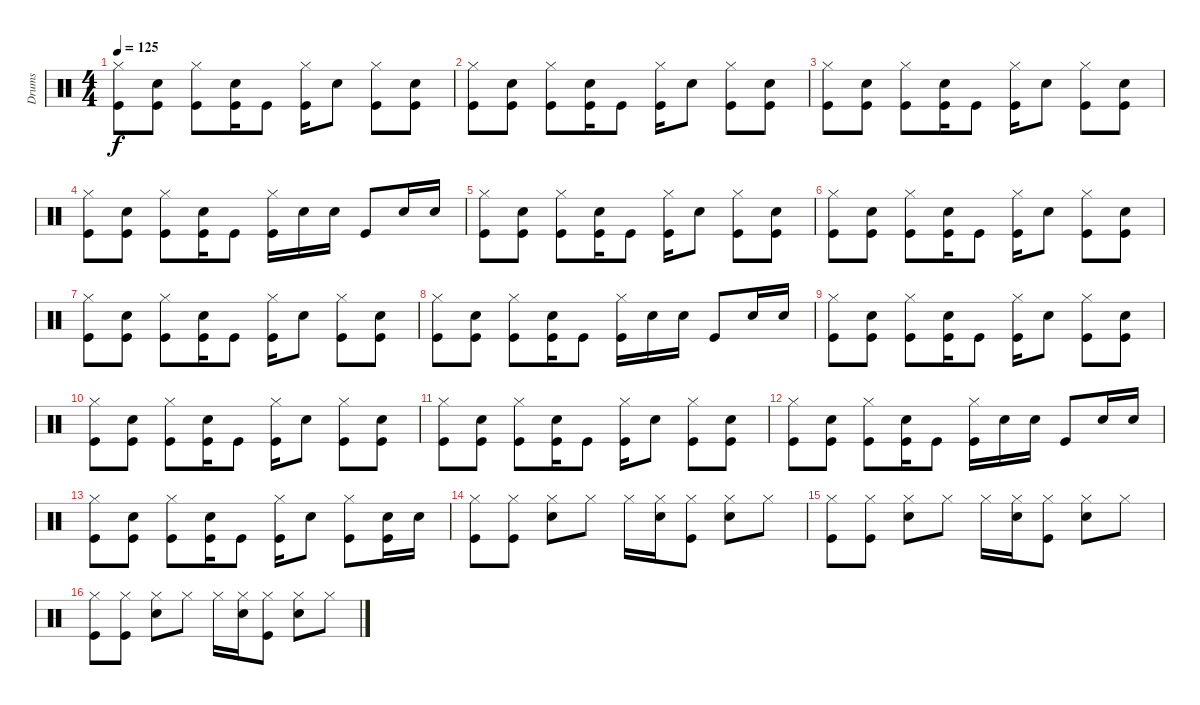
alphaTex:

\track ("Drums" "Drums") {instrument percussion}
\staff {score}
\articulation defaults
\ts (4 4)
\tempo 125
\clef neutral
\ks c
("Hi-Hat (closed)" "Kick (hit)").8{dy f} ("Snare (hit) 2" "Kick (hit)").8 ("Hi-Hat (closed)" "Kick (hit)").8 ("Snare (hit) 2" "Kick (hit)").16 "Kick (hit)".8 ("Hi-Hat (closed)" "Kick (hit)").16 "Snare (hit) 2".8 ("Hi-Hat (closed)" "Kick (hit)").8 ("Snare (hit) 2" "Kick (hit)").8 |
("Hi-Hat (closed)" "Kick (hit)").8 ("Snare (hit) 2" "Kick (hit)").8 ("Hi-Hat (closed)" "Kick (hit)").8 ("Snare (hit) 2" "Kick (hit)").16 "Kick (hit)".8 ("Hi-Hat (closed)" "Kick (hit)").16 "Snare (hit) 2".8 ("Hi-Hat (closed)" "Kick (hit)").8 ("Snare (hit) 2" "Kick (hit)").8 |
("Hi-Hat (closed)" "Kick (hit)").8 ("Snare (hit) 2" "Kick (hit)").8 ("Hi-Hat (closed)" "Kick (hit)").8 ("Snare (hit) 2" "Kick (hit)").16 "Kick (hit)".8 ("Hi-Hat (closed)" "Kick (hit)").16 "Snare (hit) 2".8 ("Hi-Hat (closed)" "Kick (hit)").8 ("Snare (hit) 2" "Kick (hit)").8 |
("Hi-Hat (closed)" "Kick (hit)").8 ("Snare (hit) 2" "Kick (hit)").8 ("Hi-Hat (closed)" "Kick (hit)").8 ("Snare (hit) 2" "Kick (hit)").16 "Kick (hit)".8 ("Hi-Hat (closed)" "Kick (hit)").16 "Snare (hit) 2".16 "Snare (hit) 2".16 "Kick (hit)".8 "Snare (hit) 2".16 "Snare (hit) 2".16 |
("Hi-Hat (closed)" "Kick (hit)").8 ("Snare (hit) 2" "Kick (hit)").8 ("Hi-Hat (closed)" "Kick (hit)").8 ("Snare (hit) 2" "Kick (hit)").16 "Kick (hit)".8 ("Hi-Hat (closed)" "Kick (hit)").16 "Snare (hit) 2".8 ("Hi-Hat (closed)" "Kick (hit)").8 ("Snare (hit) 2" "Kick (hit)").8 |
("Hi-Hat (closed)" "Kick (hit)").8 ("Snare (hit) 2" "Kick (hit)").8 ("Hi-Hat (closed)" "Kick (hit)").8 ("Snare (hit) 2" "Kick (hit)").16 "Kick (hit)".8 ("Hi-Hat (closed)" "Kick (hit)").16 "Snare (hit) 2".8 ("Hi-Hat (closed)" "Kick (hit)").8 ("Snare (hit) 2" "Kick (hit)").8 |
("Hi-Hat (closed)" "Kick (hit)").8 ("Snare (hit) 2" "Kick (hit)").8 ("Hi-Hat (closed)" "Kick (hit)").8 ("Snare (hit) 2" "Kick (hit)").16 "Kick (hit)".8 ("Hi-Hat (closed)" "Kick (hit)").16 "Snare (hit) 2".8 ("Hi-Hat (closed)" "Kick (hit)").8 ("Snare (hit) 2" "Kick (hit)").8 |
("Hi-Hat (closed)" "Kick (hit)").8 ("Snare (hit) 2" "Kick (hit)").8 ("Hi-Hat (closed)" "Kick (hit)").8 ("Snare (hit) 2" "Kick (hit)").16 "Kick (hit)".8 ("Hi-Hat (closed)" "Kick (hit)").16 "Snare (hit) 2".16 "Snare (hit) 2".16 "Kick (hit)".8 "Snare (hit) 2".16 "Snare (hit) 2".16 |
("Hi-Hat (closed)" "Kick (hit)").8 ("Snare (hit) 2" "Kick (hit)").8 ("Hi-Hat (closed)" "Kick (hit)").8 ("Snare (hit) 2" "Kick (hit)").16 "Kick (hit)".8 ("Hi-Hat (closed)" "Kick (hit)").16 "Snare (hit) 2".8 ("Hi-Hat (closed)" "Kick (hit)").8 ("Snare (hit) 2" "Kick (hit)").8 |
("Hi-Hat (closed)" "Kick (hit)").8 ("Snare (hit) 2" "Kick (hit)").8 ("Hi-Hat (closed)" "Kick (hit)").8 ("Snare (hit) 2" "Kick (hit)").16 "Kick (hit)".8 ("Hi-Hat (closed)" "Kick (hit)").16 "Snare (hit) 2".8 ("Hi-Hat (closed)" "Kick (hit)").8 ("Snare (hit) 2" "Kick (hit)").8 |
("Hi-Hat (closed)" "Kick (hit)").8 ("Snare (hit) 2" "Kick (hit)").8 ("Hi-Hat (closed)" "Kick (hit)").8 ("Snare (hit) 2" "Kick (hit)").16 "Kick (hit)".8 ("Hi-Hat (closed)" "Kick (hit)").16 "Snare (hit) 2".8 ("Hi-Hat (closed)" "Kick (hit)").8 ("Snare (hit) 2" "Kick (hit)").8 |
("Hi-Hat (closed)" "Kick (hit)").8 ("Snare (hit) 2" "Kick (hit)").8 ("Hi-Hat (closed)" "Kick (hit)").8 ("Snare (hit) 2" "Kick (hit)").16 "Kick (hit)".8 ("Hi-Hat (closed)" "Kick (hit)").16 "Snare (hit) 2".16 "Snare (hit) 2".16 "Kick (hit)".8 "Snare (hit) 2".16 "Snare (hit) 2".16 |
("Hi-Hat (closed)" "Kick (hit)").8 ("Snare (hit) 2" "Kick (hit)").8 ("Hi-Hat (closed)" "Kick (hit)").8 ("Snare (hit) 2" "Kick (hit)").16 "Kick (hit)".8 ("Hi-Hat (closed)" "Kick (hit)").16 "Snare (hit) 2".8 ("Hi-Hat (closed)" "Kick (hit)").8 ("Snare (hit) 2" "Kick (hit)").16 "Snare (hit) 2".16 |
("Hi-Hat (closed)" "Kick (hit)").8 ("Hi-Hat (closed)" "Kick (hit)").8 ("Hi-Hat (closed)" "Snare (hit) 2").8 "Hi-Hat (closed)".8 "Hi-Hat (closed)".16 ("Hi-Hat (closed)" "Snare (hit) 2").16 ("Hi-Hat (closed)" "Kick (hit)").8 ("Hi-Hat (closed)" "Snare (hit) 2").8 "Hi-Hat (closed)".8 |
("Hi-Hat (closed)" "Kick (hit)").8 ("Hi-Hat (closed)" "Kick (hit)").8 ("Hi-Hat (closed)" "Snare (hit) 2").8 "Hi-Hat (closed)".8 "Hi-Hat (closed)".16 ("Hi-Hat (closed)" "Snare (hit) 2").16 ("Hi-Hat (closed)" "Kick (hit)").8 ("Hi-Hat (closed)" "Snare (hit) 2").8 "Hi-Hat (closed)".8 |
("Hi-Hat (closed)" "Kick (hit)").8 ("Hi-Hat (closed)" "Kick (hit)").8 ("Hi-Hat (closed)" "Snare (hit) 2").8 "Hi-Hat (closed)".8 "Hi-Hat (closed)".16 ("Hi-Hat (closed)" "Snare (hit) 2").16 ("Hi-Hat (closed)" "Kick (hit)").8 ("Hi-Hat (closed)" "Snare (hit) 2").8 "Hi-Hat (closed)".8
